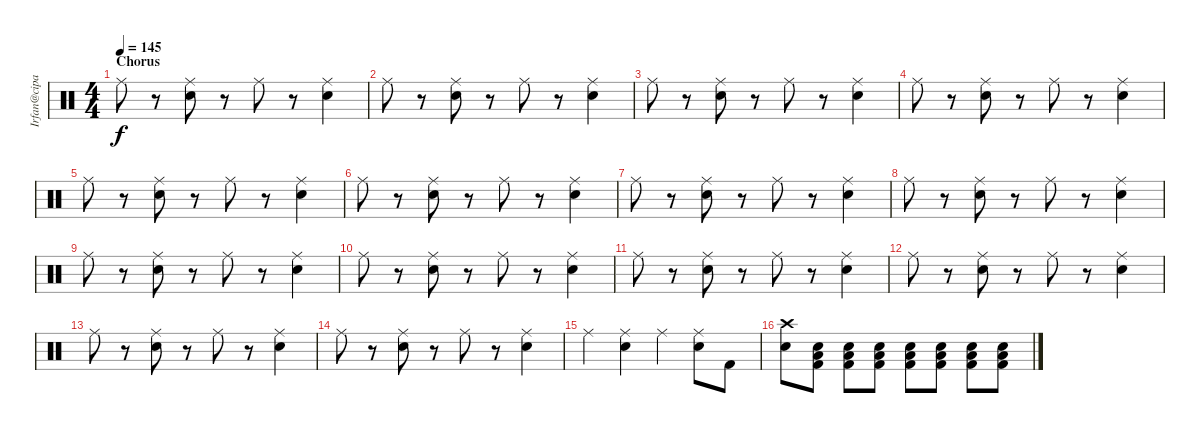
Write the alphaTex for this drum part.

\track ("Irfan@cipan 2" "Irfan@cipa") {instrument percussion}
\staff {score}
\articulation defaults
\ts (4 4)
\section ("" "Chorus")
\tempo 145
\clef neutral
\ks c "Ride (middle)".8{dy f}
r.8 ("Ride (middle)" "Electric Snare (hit)").8 r.8 "Ride (middle)".8 r.8 ("Ride (middle)" "Electric Snare (hit)").4 |
"Ride (middle)".8 r.8 ("Ride (middle)" "Electric Snare (hit)").8 r.8 "Ride (middle)".8 r.8 ("Ride (middle)" "Electric Snare (hit)").4 |
"Ride (middle)".8 r.8 ("Ride (middle)" "Electric Snare (hit)").8 r.8 "Ride (middle)".8 r.8 ("Ride (middle)" "Electric Snare (hit)").4 |
"Ride (middle)".8 r.8 ("Ride (middle)" "Electric Snare (hit)").8 r.8 "Ride (middle)".8 r.8 ("Ride (middle)" "Electric Snare (hit)").4 |
"Ride (middle)".8 r.8 ("Ride (middle)" "Electric Snare (hit)").8 r.8 "Ride (middle)".8 r.8 ("Ride (middle)" "Electric Snare (hit)").4 |
"Ride (middle)".8 r.8 ("Ride (middle)" "Electric Snare (hit)").8 r.8 "Ride (middle)".8 r.8 ("Ride (middle)" "Electric Snare (hit)").4 |
"Ride (middle)".8 r.8 ("Ride (middle)" "Electric Snare (hit)").8 r.8 "Ride (middle)".8 r.8 ("Ride (middle)" "Electric Snare (hit)").4 |
"Ride (middle)".8 r.8 ("Ride (middle)" "Electric Snare (hit)").8 r.8 "Ride (middle)".8 r.8 ("Ride (middle)" "Electric Snare (hit)").4 |
"Ride (middle)".8 r.8 ("Ride (middle)" "Electric Snare (hit)").8 r.8 "Ride (middle)".8 r.8 ("Ride (middle)" "Electric Snare (hit)").4 |
"Ride (middle)".8 r.8 ("Ride (middle)" "Electric Snare (hit)").8 r.8 "Ride (middle)".8 r.8 ("Ride (middle)" "Electric Snare (hit)").4 |
"Ride (middle)".8 r.8 ("Ride (middle)" "Electric Snare (hit)").8 r.8 "Ride (middle)".8 r.8 ("Ride (middle)" "Electric Snare (hit)").4 |
"Ride (middle)".8 r.8 ("Ride (middle)" "Electric Snare (hit)").8 r.8 "Ride (middle)".8 r.8 ("Ride (middle)" "Electric Snare (hit)").4 |
"Ride (middle)".8 r.8 ("Ride (middle)" "Electric Snare (hit)").8 r.8 "Ride (middle)".8 r.8 ("Ride (middle)" "Electric Snare (hit)").4 |
"Ride (middle)".8 r.8 ("Ride (middle)" "Electric Snare (hit)").8 r.8 "Ride (middle)".8 r.8 ("Ride (middle)" "Electric Snare (hit)").4 |
"Ride (middle)".4 ("Ride (middle)" "Electric Snare (hit)").4 "Ride (middle)".4 ("Ride (middle)" "Electric Snare (hit)").8 "Kick (hit) 2".8 |
("Crash high (hit)" "Electric Snare (hit)").8 ("Kick (hit) 2" "Low Floor Tom (hit)" "Electric Snare (hit)").8 ("Kick (hit) 2" "Low Floor Tom (hit)" "Electric Snare (hit)").8 ("Kick (hit) 2" "Low Floor Tom (hit)" "Electric Snare (hit)").8 ("Kick (hit) 2" "Low Floor Tom (hit)" "Electric Snare (hit)").8 ("Kick (hit) 2" "Low Floor Tom (hit)" "Electric Snare (hit)").8 ("Kick (hit) 2" "Low Floor Tom (hit)" "Electric Snare (hit)").8 ("Kick (hit) 2" "Low Floor Tom (hit)" "Electric Snare (hit)").8
